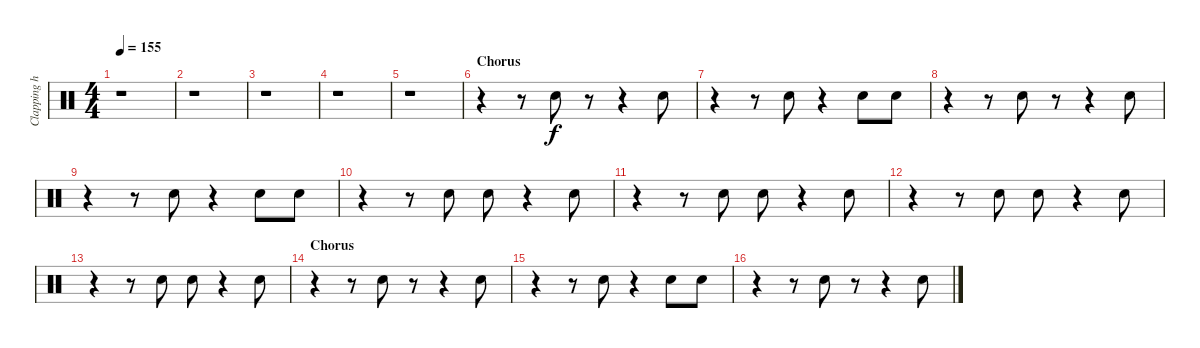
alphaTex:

\track ("Clapping hands" "Clapping h") {instrument percussion}
\staff {score}
\articulation defaults
\ts (4 4)
\tempo 155
\clef neutral
\ks c
r.1{dy f} |
r.1 |
r.1 |
r.1 |
r.1 |
\section ("" "Chorus")
r.4 r.8 "Hand Clap (hit)".8 r.8 r.4 "Hand Clap (hit)".8 |
r.4 r.8 "Hand Clap (hit)".8 r.4 "Hand Clap (hit)".8 "Hand Clap (hit)".8 |
r.4 r.8 "Hand Clap (hit)".8 r.8 r.4 "Hand Clap (hit)".8 |
r.4 r.8 "Hand Clap (hit)".8 r.4 "Hand Clap (hit)".8 "Hand Clap (hit)".8 |
r.4 r.8 "Hand Clap (hit)".8 "Hand Clap (hit)".8 r.4 "Hand Clap (hit)".8 |
r.4 r.8 "Hand Clap (hit)".8 "Hand Clap (hit)".8 r.4 "Hand Clap (hit)".8 |
r.4 r.8 "Hand Clap (hit)".8 "Hand Clap (hit)".8 r.4 "Hand Clap (hit)".8 |
r.4 r.8 "Hand Clap (hit)".8 "Hand Clap (hit)".8 r.4 "Hand Clap (hit)".8 |
\section ("" "Chorus")
r.4 r.8 "Hand Clap (hit)".8 r.8 r.4 "Hand Clap (hit)".8 |
r.4 r.8 "Hand Clap (hit)".8 r.4 "Hand Clap (hit)".8 "Hand Clap (hit)".8 |
r.4 r.8 "Hand Clap (hit)".8 r.8 r.4 "Hand Clap (hit)".8
